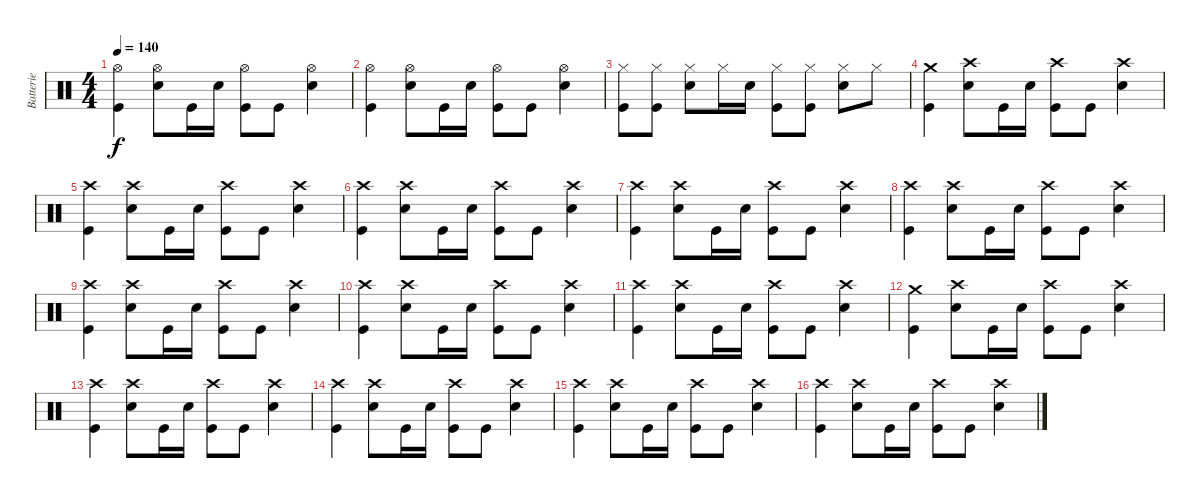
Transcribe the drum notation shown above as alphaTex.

\track ("Batterie" "Batterie") {instrument percussion}
\staff {score}
\articulation defaults
\ts (4 4)
\tempo 140
\clef neutral
\ks c
("Hi-Hat (open)" "Kick (hit)").4{dy f} ("Hi-Hat (open)" "Electric Snare (hit)").8 "Kick (hit)".16 "Electric Snare (hit)".16 ("Hi-Hat (open)" "Kick (hit)").8 "Kick (hit)".8 ("Hi-Hat (open)" "Electric Snare (hit)").4 |
("Hi-Hat (open)" "Kick (hit)").4 ("Hi-Hat (open)" "Electric Snare (hit)").8 "Kick (hit)".16 "Electric Snare (hit)".16 ("Hi-Hat (open)" "Kick (hit)").8 "Kick (hit)".8 ("Hi-Hat (open)" "Electric Snare (hit)").4 |
("Hi-Hat (closed)" "Kick (hit)").8 ("Hi-Hat (closed)" "Kick (hit)").8 ("Hi-Hat (closed)" "Electric Snare (hit)").8 "Hi-Hat (closed)".16 "Electric Snare (hit)".16 ("Hi-Hat (closed)" "Kick (hit)").8 ("Hi-Hat (closed)" "Kick (hit)").8 ("Hi-Hat (closed)" "Electric Snare (hit)").8 "Hi-Hat (closed)".8 |
("Crash medium (hit)" "Kick (hit)").4 ("Crash high (hit)" "Electric Snare (hit)").8 "Kick (hit)".16 "Electric Snare (hit)".16 ("Crash high (hit)" "Kick (hit)").8 "Kick (hit)".8 ("Crash high (hit)" "Electric Snare (hit)").4 |
("Crash high (hit)" "Kick (hit)").4 ("Crash high (hit)" "Electric Snare (hit)").8 "Kick (hit)".16 "Electric Snare (hit)".16 ("Crash high (hit)" "Kick (hit)").8 "Kick (hit)".8 ("Crash high (hit)" "Electric Snare (hit)").4 |
("Crash high (hit)" "Kick (hit)").4 ("Crash high (hit)" "Electric Snare (hit)").8 "Kick (hit)".16 "Electric Snare (hit)".16 ("Crash high (hit)" "Kick (hit)").8 "Kick (hit)".8 ("Crash high (hit)" "Electric Snare (hit)").4 |
("Crash high (hit)" "Kick (hit)").4 ("Crash high (hit)" "Electric Snare (hit)").8 "Kick (hit)".16 "Electric Snare (hit)".16 ("Crash high (hit)" "Kick (hit)").8 "Kick (hit)".8 ("Crash high (hit)" "Electric Snare (hit)").4 |
("Crash high (hit)" "Kick (hit)").4 ("Crash high (hit)" "Electric Snare (hit)").8 "Kick (hit)".16 "Electric Snare (hit)".16 ("Crash high (hit)" "Kick (hit)").8 "Kick (hit)".8 ("Crash high (hit)" "Electric Snare (hit)").4 |
("Crash high (hit)" "Kick (hit)").4 ("Crash high (hit)" "Electric Snare (hit)").8 "Kick (hit)".16 "Electric Snare (hit)".16 ("Crash high (hit)" "Kick (hit)").8 "Kick (hit)".8 ("Crash high (hit)" "Electric Snare (hit)").4 |
("Crash high (hit)" "Kick (hit)").4 ("Crash high (hit)" "Electric Snare (hit)").8 "Kick (hit)".16 "Electric Snare (hit)".16 ("Crash high (hit)" "Kick (hit)").8 "Kick (hit)".8 ("Crash high (hit)" "Electric Snare (hit)").4 |
("Crash high (hit)" "Kick (hit)").4 ("Crash high (hit)" "Electric Snare (hit)").8 "Kick (hit)".16 "Electric Snare (hit)".16 ("Crash high (hit)" "Kick (hit)").8 "Kick (hit)".8 ("Crash high (hit)" "Electric Snare (hit)").4 |
("Crash medium (hit)" "Kick (hit)").4 ("Crash high (hit)" "Electric Snare (hit)").8 "Kick (hit)".16 "Electric Snare (hit)".16 ("Crash high (hit)" "Kick (hit)").8 "Kick (hit)".8 ("Crash high (hit)" "Electric Snare (hit)").4 |
("Crash high (hit)" "Kick (hit)").4 ("Crash high (hit)" "Electric Snare (hit)").8 "Kick (hit)".16 "Electric Snare (hit)".16 ("Crash high (hit)" "Kick (hit)").8 "Kick (hit)".8 ("Crash high (hit)" "Electric Snare (hit)").4 |
("Crash high (hit)" "Kick (hit)").4 ("Crash high (hit)" "Electric Snare (hit)").8 "Kick (hit)".16 "Electric Snare (hit)".16 ("Crash high (hit)" "Kick (hit)").8 "Kick (hit)".8 ("Crash high (hit)" "Electric Snare (hit)").4 |
("Crash high (hit)" "Kick (hit)").4 ("Crash high (hit)" "Electric Snare (hit)").8 "Kick (hit)".16 "Electric Snare (hit)".16 ("Crash high (hit)" "Kick (hit)").8 "Kick (hit)".8 ("Crash high (hit)" "Electric Snare (hit)").4 |
("Crash high (hit)" "Kick (hit)").4 ("Crash high (hit)" "Electric Snare (hit)").8 "Kick (hit)".16 "Electric Snare (hit)".16 ("Crash high (hit)" "Kick (hit)").8 "Kick (hit)".8 ("Crash high (hit)" "Electric Snare (hit)").4
